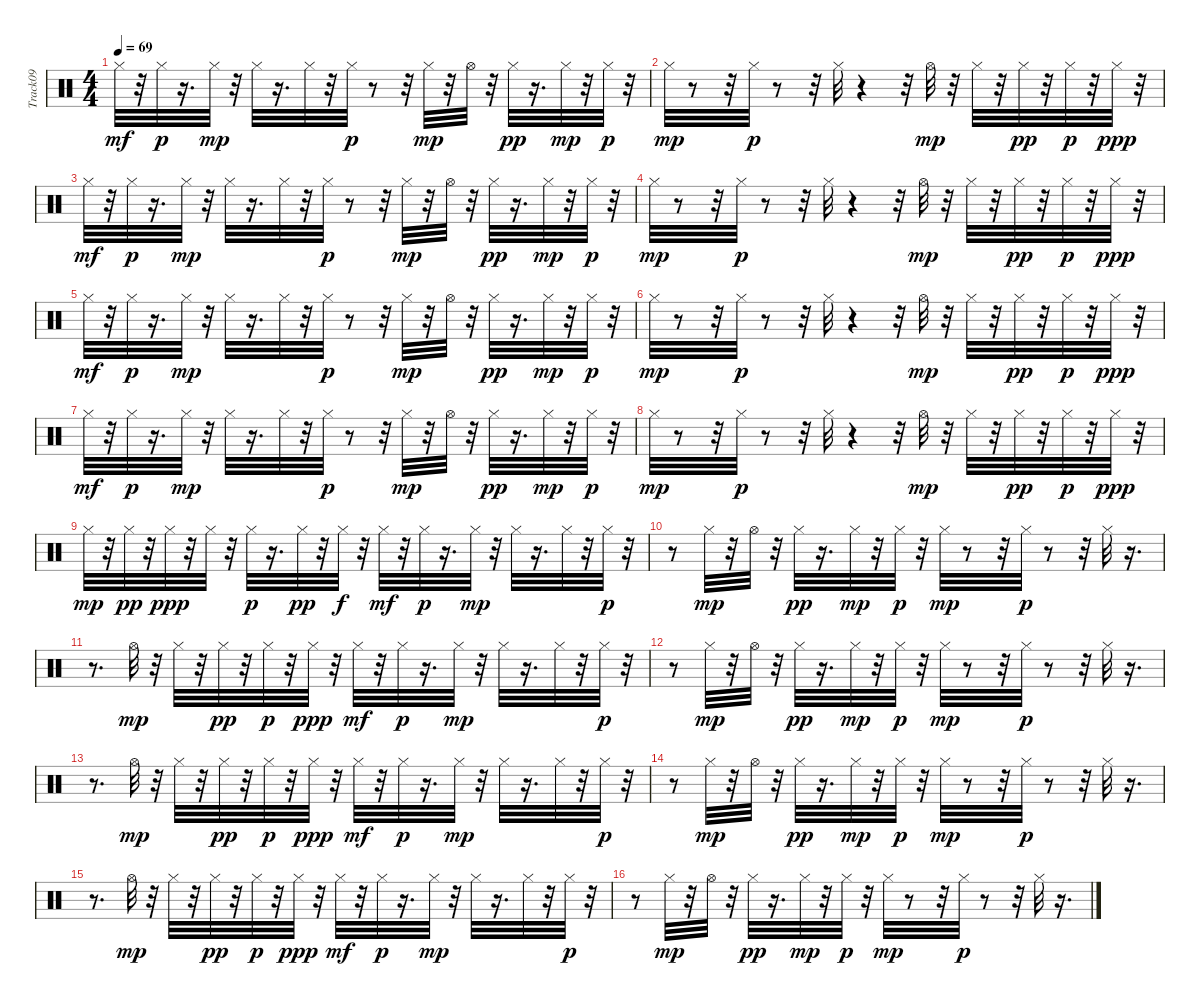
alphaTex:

\track ("Track09" "Track09") {instrument percussion}
\staff {score}
\articulation defaults
\ts (4 4)
\tempo 69
\clef neutral
\ks c "Hi-Hat (closed)".32{dy mf}
r.32 "Hi-Hat (closed)".32{dy p} r.16{d} "Hi-Hat (closed)".32{dy mp} r.32 "Hi-Hat (closed)".32 r.16{d} "Hi-Hat (closed)".32 r.32 "Hi-Hat (closed)".32{dy p} r.8 r.32 "Hi-Hat (closed)".32{dy mp} r.32 "Hi-Hat (open)".32 r.32 "Hi-Hat (closed)".32{dy pp} r.16{d} "Hi-Hat (closed)".32{dy mp} r.32 "Hi-Hat (closed)".32{dy p} r.32 |
"Hi-Hat (closed)".32{dy mp} r.8 r.32 "Hi-Hat (closed)".32{dy p} r.8 r.32 "Hi-Hat (closed)".32 r.4 r.32 "Hi-Hat (open)".32{dy mp} r.32 "Hi-Hat (closed)".32 r.32 "Hi-Hat (closed)".32{dy pp} r.32 "Hi-Hat (closed)".32{dy p} r.32 "Hi-Hat (closed)".32{dy ppp} r.32 |
"Hi-Hat (closed)".32{dy mf} r.32 "Hi-Hat (closed)".32{dy p} r.16{d} "Hi-Hat (closed)".32{dy mp} r.32 "Hi-Hat (closed)".32 r.16{d} "Hi-Hat (closed)".32 r.32 "Hi-Hat (closed)".32{dy p} r.8 r.32 "Hi-Hat (closed)".32{dy mp} r.32 "Hi-Hat (open)".32 r.32 "Hi-Hat (closed)".32{dy pp} r.16{d} "Hi-Hat (closed)".32{dy mp} r.32 "Hi-Hat (closed)".32{dy p} r.32 |
"Hi-Hat (closed)".32{dy mp} r.8 r.32 "Hi-Hat (closed)".32{dy p} r.8 r.32 "Hi-Hat (closed)".32 r.4 r.32 "Hi-Hat (open)".32{dy mp} r.32 "Hi-Hat (closed)".32 r.32 "Hi-Hat (closed)".32{dy pp} r.32 "Hi-Hat (closed)".32{dy p} r.32 "Hi-Hat (closed)".32{dy ppp} r.32 |
"Hi-Hat (closed)".32{dy mf} r.32 "Hi-Hat (closed)".32{dy p} r.16{d} "Hi-Hat (closed)".32{dy mp} r.32 "Hi-Hat (closed)".32 r.16{d} "Hi-Hat (closed)".32 r.32 "Hi-Hat (closed)".32{dy p} r.8 r.32 "Hi-Hat (closed)".32{dy mp} r.32 "Hi-Hat (open)".32 r.32 "Hi-Hat (closed)".32{dy pp} r.16{d} "Hi-Hat (closed)".32{dy mp} r.32 "Hi-Hat (closed)".32{dy p} r.32 |
"Hi-Hat (closed)".32{dy mp} r.8 r.32 "Hi-Hat (closed)".32{dy p} r.8 r.32 "Hi-Hat (closed)".32 r.4 r.32 "Hi-Hat (open)".32{dy mp} r.32 "Hi-Hat (closed)".32 r.32 "Hi-Hat (closed)".32{dy pp} r.32 "Hi-Hat (closed)".32{dy p} r.32 "Hi-Hat (closed)".32{dy ppp} r.32 |
"Hi-Hat (closed)".32{dy mf} r.32 "Hi-Hat (closed)".32{dy p} r.16{d} "Hi-Hat (closed)".32{dy mp} r.32 "Hi-Hat (closed)".32 r.16{d} "Hi-Hat (closed)".32 r.32 "Hi-Hat (closed)".32{dy p} r.8 r.32 "Hi-Hat (closed)".32{dy mp} r.32 "Hi-Hat (open)".32 r.32 "Hi-Hat (closed)".32{dy pp} r.16{d} "Hi-Hat (closed)".32{dy mp} r.32 "Hi-Hat (closed)".32{dy p} r.32 |
"Hi-Hat (closed)".32{dy mp} r.8 r.32 "Hi-Hat (closed)".32{dy p} r.8 r.32 "Hi-Hat (closed)".32 r.4 r.32 "Hi-Hat (open)".32{dy mp} r.32 "Hi-Hat (closed)".32 r.32 "Hi-Hat (closed)".32{dy pp} r.32 "Hi-Hat (closed)".32{dy p} r.32 "Hi-Hat (closed)".32{dy ppp} r.32 |
"Hi-Hat (closed)".32{dy mp} r.32 "Hi-Hat (closed)".32{dy pp} r.32 "Hi-Hat (closed)".32{dy ppp} r.32 "Hi-Hat (closed)".32 r.32 "Hi-Hat (closed)".32{dy p} r.16{d} "Hi-Hat (closed)".32{dy pp} r.32 "Hi-Hat (closed)".32{dy f} r.32 "Hi-Hat (closed)".32{dy mf} r.32 "Hi-Hat (closed)".32{dy p} r.16{d} "Hi-Hat (closed)".32{dy mp} r.32 "Hi-Hat (closed)".32 r.16{d} "Hi-Hat (closed)".32 r.32 "Hi-Hat (closed)".32{dy p} r.32 |
r.8 "Hi-Hat (closed)".32{dy mp} r.32 "Hi-Hat (open)".32 r.32 "Hi-Hat (closed)".32{dy pp} r.16{d} "Hi-Hat (closed)".32{dy mp} r.32 "Hi-Hat (closed)".32{dy p} r.32 "Hi-Hat (closed)".32{dy mp} r.8 r.32 "Hi-Hat (closed)".32{dy p} r.8 r.32 "Hi-Hat (closed)".32 r.16{d} |
r.8{d} "Hi-Hat (open)".32{dy mp} r.32 "Hi-Hat (closed)".32 r.32 "Hi-Hat (closed)".32{dy pp} r.32 "Hi-Hat (closed)".32{dy p} r.32 "Hi-Hat (closed)".32{dy ppp} r.32 "Hi-Hat (closed)".32{dy mf} r.32 "Hi-Hat (closed)".32{dy p} r.16{d} "Hi-Hat (closed)".32{dy mp} r.32 "Hi-Hat (closed)".32 r.16{d} "Hi-Hat (closed)".32 r.32 "Hi-Hat (closed)".32{dy p} r.32 |
r.8 "Hi-Hat (closed)".32{dy mp} r.32 "Hi-Hat (open)".32 r.32 "Hi-Hat (closed)".32{dy pp} r.16{d} "Hi-Hat (closed)".32{dy mp} r.32 "Hi-Hat (closed)".32{dy p} r.32 "Hi-Hat (closed)".32{dy mp} r.8 r.32 "Hi-Hat (closed)".32{dy p} r.8 r.32 "Hi-Hat (closed)".32 r.16{d} |
r.8{d} "Hi-Hat (open)".32{dy mp} r.32 "Hi-Hat (closed)".32 r.32 "Hi-Hat (closed)".32{dy pp} r.32 "Hi-Hat (closed)".32{dy p} r.32 "Hi-Hat (closed)".32{dy ppp} r.32 "Hi-Hat (closed)".32{dy mf} r.32 "Hi-Hat (closed)".32{dy p} r.16{d} "Hi-Hat (closed)".32{dy mp} r.32 "Hi-Hat (closed)".32 r.16{d} "Hi-Hat (closed)".32 r.32 "Hi-Hat (closed)".32{dy p} r.32 |
r.8 "Hi-Hat (closed)".32{dy mp} r.32 "Hi-Hat (open)".32 r.32 "Hi-Hat (closed)".32{dy pp} r.16{d} "Hi-Hat (closed)".32{dy mp} r.32 "Hi-Hat (closed)".32{dy p} r.32 "Hi-Hat (closed)".32{dy mp} r.8 r.32 "Hi-Hat (closed)".32{dy p} r.8 r.32 "Hi-Hat (closed)".32 r.16{d} |
r.8{d} "Hi-Hat (open)".32{dy mp} r.32 "Hi-Hat (closed)".32 r.32 "Hi-Hat (closed)".32{dy pp} r.32 "Hi-Hat (closed)".32{dy p} r.32 "Hi-Hat (closed)".32{dy ppp} r.32 "Hi-Hat (closed)".32{dy mf} r.32 "Hi-Hat (closed)".32{dy p} r.16{d} "Hi-Hat (closed)".32{dy mp} r.32 "Hi-Hat (closed)".32 r.16{d} "Hi-Hat (closed)".32 r.32 "Hi-Hat (closed)".32{dy p} r.32 |
r.8 "Hi-Hat (closed)".32{dy mp} r.32 "Hi-Hat (open)".32 r.32 "Hi-Hat (closed)".32{dy pp} r.16{d} "Hi-Hat (closed)".32{dy mp} r.32 "Hi-Hat (closed)".32{dy p} r.32 "Hi-Hat (closed)".32{dy mp} r.8 r.32 "Hi-Hat (closed)".32{dy p} r.8 r.32 "Hi-Hat (closed)".32 r.16{d}
